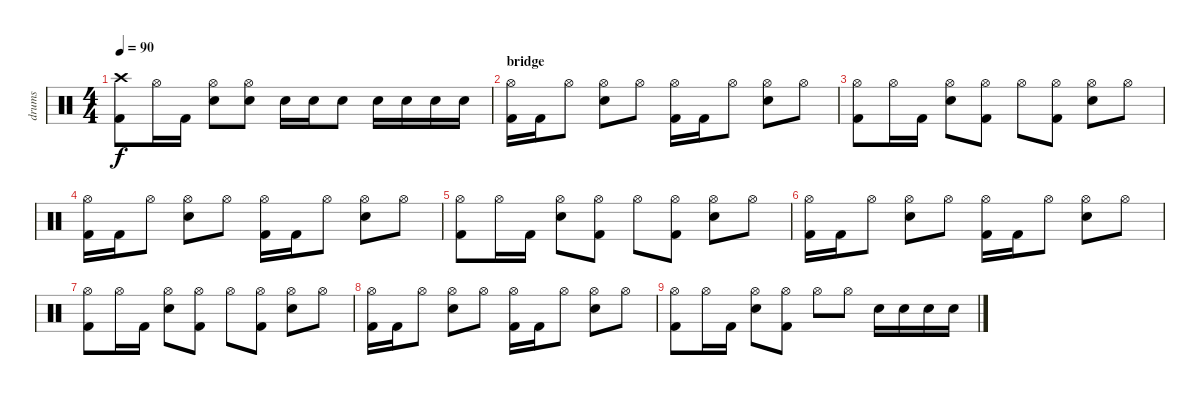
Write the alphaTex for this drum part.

\track ("drums" "drums") {instrument percussion}
\staff {score}
\articulation defaults
\ts (4 4)
\tempo 90
\clef neutral
\ks c
("Crash high (hit)" "Kick (hit) 2").8{dy f} "Hi-Hat (open)".16 "Kick (hit) 2".16 ("Hi-Hat (open)" "Electric Snare (hit)").8 ("Hi-Hat (open)" "Electric Snare (hit)").8 "Electric Snare (hit)".16 "Electric Snare (hit)".16 "Electric Snare (hit)".8 "Electric Snare (hit)".16 "Electric Snare (hit)".16 "Electric Snare (hit)".16 "Electric Snare (hit)".16 |
\section ("" "bridge")
("Hi-Hat (open)" "Kick (hit) 2").16 "Kick (hit) 2".16 "Hi-Hat (open)".8 ("Hi-Hat (open)" "Electric Snare (hit)").8 "Hi-Hat (open)".8 ("Hi-Hat (open)" "Kick (hit) 2").16 "Kick (hit) 2".16 "Hi-Hat (open)".8 ("Hi-Hat (open)" "Electric Snare (hit)").8 "Hi-Hat (open)".8 |
("Hi-Hat (open)" "Kick (hit) 2").8 "Hi-Hat (open)".16 "Kick (hit) 2".16 ("Hi-Hat (open)" "Electric Snare (hit)").8 ("Hi-Hat (open)" "Kick (hit) 2").8 "Hi-Hat (open)".8 ("Hi-Hat (open)" "Kick (hit) 2").8 ("Hi-Hat (open)" "Electric Snare (hit)").8 "Hi-Hat (open)".8 |
("Hi-Hat (open)" "Kick (hit) 2").16 "Kick (hit) 2".16 "Hi-Hat (open)".8 ("Hi-Hat (open)" "Electric Snare (hit)").8 "Hi-Hat (open)".8 ("Hi-Hat (open)" "Kick (hit) 2").16 "Kick (hit) 2".16 "Hi-Hat (open)".8 ("Hi-Hat (open)" "Electric Snare (hit)").8 "Hi-Hat (open)".8 |
("Hi-Hat (open)" "Kick (hit) 2").8 "Hi-Hat (open)".16 "Kick (hit) 2".16 ("Hi-Hat (open)" "Electric Snare (hit)").8 ("Hi-Hat (open)" "Kick (hit) 2").8 "Hi-Hat (open)".8 ("Hi-Hat (open)" "Kick (hit) 2").8 ("Hi-Hat (open)" "Electric Snare (hit)").8 "Hi-Hat (open)".8 |
("Hi-Hat (open)" "Kick (hit) 2").16 "Kick (hit) 2".16 "Hi-Hat (open)".8 ("Hi-Hat (open)" "Electric Snare (hit)").8 "Hi-Hat (open)".8 ("Hi-Hat (open)" "Kick (hit) 2").16 "Kick (hit) 2".16 "Hi-Hat (open)".8 ("Hi-Hat (open)" "Electric Snare (hit)").8 "Hi-Hat (open)".8 |
("Hi-Hat (open)" "Kick (hit) 2").8 "Hi-Hat (open)".16 "Kick (hit) 2".16 ("Hi-Hat (open)" "Electric Snare (hit)").8 ("Hi-Hat (open)" "Kick (hit) 2").8 "Hi-Hat (open)".8 ("Hi-Hat (open)" "Kick (hit) 2").8 ("Hi-Hat (open)" "Electric Snare (hit)").8 "Hi-Hat (open)".8 |
("Hi-Hat (open)" "Kick (hit) 2").16 "Kick (hit) 2".16 "Hi-Hat (open)".8 ("Hi-Hat (open)" "Electric Snare (hit)").8 "Hi-Hat (open)".8 ("Hi-Hat (open)" "Kick (hit) 2").16 "Kick (hit) 2".16 "Hi-Hat (open)".8 ("Hi-Hat (open)" "Electric Snare (hit)").8 "Hi-Hat (open)".8 |
("Hi-Hat (open)" "Kick (hit) 2").8 "Hi-Hat (open)".16 "Kick (hit) 2".16 ("Hi-Hat (open)" "Electric Snare (hit)").8 ("Hi-Hat (open)" "Kick (hit) 2").8 "Hi-Hat (open)".8 "Hi-Hat (open)".8 "Electric Snare (hit)".16 "Electric Snare (hit)".16 "Electric Snare (hit)".16 "Electric Snare (hit)".16
